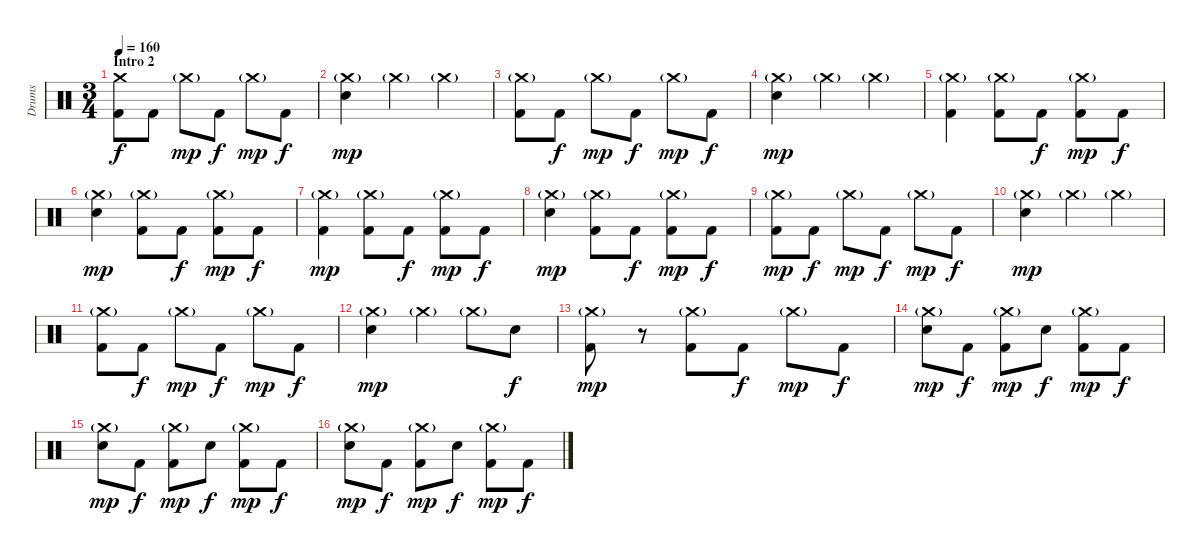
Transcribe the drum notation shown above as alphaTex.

\track ("Drums" "Drums") {instrument percussion}
\staff {score}
\articulation defaults
\ts (3 4)
\section ("" "Intro 2")
\tempo 160
\clef neutral
\ks c
("Crash medium (hit)" "Kick (hit) 2").8{dy f} "Kick (hit) 2".8 "Crash medium (hit)"{g}.8{dy mp} "Kick (hit) 2".8{dy f} "Crash medium (hit)"{g}.8{dy mp} "Kick (hit) 2".8{dy f} |
("Crash medium (hit)"{g} "Snare (hit) 2").4{dy mp} "Crash medium (hit)"{g}.4 "Crash medium (hit)"{g}.4 |
("Crash medium (hit)"{g} "Kick (hit) 2").8 "Kick (hit) 2".8{dy f} "Crash medium (hit)"{g}.8{dy mp} "Kick (hit) 2".8{dy f} "Crash medium (hit)"{g}.8{dy mp} "Kick (hit) 2".8{dy f} |
("Crash medium (hit)"{g} "Snare (hit) 2").4{dy mp} "Crash medium (hit)"{g}.4 "Crash medium (hit)"{g}.4 |
("Crash medium (hit)"{g} "Kick (hit) 2").4 ("Crash medium (hit)"{g} "Kick (hit) 2").8 "Kick (hit) 2".8{dy f} ("Crash medium (hit)"{g} "Kick (hit) 2").8{dy mp} "Kick (hit) 2".8{dy f} |
("Crash medium (hit)"{g} "Snare (hit) 2").4{dy mp} ("Crash medium (hit)"{g} "Kick (hit) 2").8 "Kick (hit) 2".8{dy f} ("Crash medium (hit)"{g} "Kick (hit) 2").8{dy mp} "Kick (hit) 2".8{dy f} |
("Crash medium (hit)"{g} "Kick (hit) 2").4{dy mp} ("Crash medium (hit)"{g} "Kick (hit) 2").8 "Kick (hit) 2".8{dy f} ("Crash medium (hit)"{g} "Kick (hit) 2").8{dy mp} "Kick (hit) 2".8{dy f} |
("Crash medium (hit)"{g} "Snare (hit) 2").4{dy mp} ("Crash medium (hit)"{g} "Kick (hit) 2").8 "Kick (hit) 2".8{dy f} ("Crash medium (hit)"{g} "Kick (hit) 2").8{dy mp} "Kick (hit) 2".8{dy f} |
("Crash medium (hit)"{g} "Kick (hit) 2").8{dy mp} "Kick (hit) 2".8{dy f} "Crash medium (hit)"{g}.8{dy mp} "Kick (hit) 2".8{dy f} "Crash medium (hit)"{g}.8{dy mp} "Kick (hit) 2".8{dy f} |
("Crash medium (hit)"{g} "Snare (hit) 2").4{dy mp} "Crash medium (hit)"{g}.4 "Crash medium (hit)"{g}.4 |
("Crash medium (hit)"{g} "Kick (hit) 2").8 "Kick (hit) 2".8{dy f} "Crash medium (hit)"{g}.8{dy mp} "Kick (hit) 2".8{dy f} "Crash medium (hit)"{g}.8{dy mp} "Kick (hit) 2".8{dy f} |
("Crash medium (hit)"{g} "Snare (hit) 2").4{dy mp} "Crash medium (hit)"{g}.4 "Crash medium (hit)"{g}.8 "Snare (hit) 2".8{dy f} |
("Crash medium (hit)"{g} "Kick (hit) 2").8{dy mp} r.8 ("Crash medium (hit)"{g} "Kick (hit) 2").8 "Kick (hit) 2".8{dy f} "Crash medium (hit)"{g}.8{dy mp} "Kick (hit) 2".8{dy f} |
("Crash medium (hit)"{g} "Snare (hit) 2").8{dy mp} "Kick (hit) 2".8{dy f} ("Crash medium (hit)"{g} "Kick (hit) 2").8{dy mp} "Snare (hit) 2".8{dy f} ("Crash medium (hit)"{g} "Kick (hit) 2").8{dy mp} "Kick (hit) 2".8{dy f} |
("Crash medium (hit)"{g} "Snare (hit) 2").8{dy mp} "Kick (hit) 2".8{dy f} ("Crash medium (hit)"{g} "Kick (hit) 2").8{dy mp} "Snare (hit) 2".8{dy f} ("Crash medium (hit)"{g} "Kick (hit) 2").8{dy mp} "Kick (hit) 2".8{dy f} |
("Crash medium (hit)"{g} "Snare (hit) 2").8{dy mp} "Kick (hit) 2".8{dy f} ("Crash medium (hit)"{g} "Kick (hit) 2").8{dy mp} "Snare (hit) 2".8{dy f} ("Crash medium (hit)"{g} "Kick (hit) 2").8{dy mp} "Kick (hit) 2".8{dy f}
